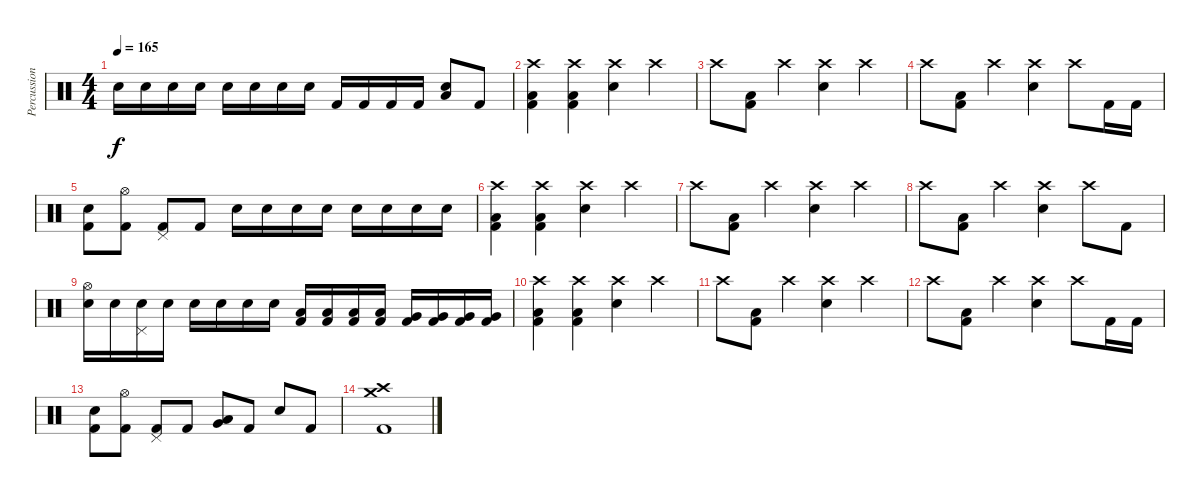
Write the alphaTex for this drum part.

\track ("Percussion" "Percussion") {instrument percussion}
\staff {score}
\articulation defaults
\ts (4 4)
\tempo 165
\clef neutral
\ks c "Electric Snare (hit)".16{dy f} "Electric Snare (hit)".16 "Electric Snare (hit)".16 "Electric Snare (hit)".16 "Electric Snare (hit)".16 "Electric Snare (hit)".16 "Electric Snare (hit)".16 "Electric Snare (hit)".16 "Kick (hit) 2".16 "Kick (hit) 2".16 "Kick (hit) 2".16 "Kick (hit) 2".16
("Electric Snare (hit)" "Low Floor Tom (hit)").8 "Kick (hit) 2".8 |
("Crash high (hit)" "Low Floor Tom (hit)" "Kick (hit) 2").4 ("Crash high (hit)" "Low Floor Tom (hit)" "Kick (hit) 2").4 ("Crash high (hit)" "Electric Snare (hit)").4 "Crash high (hit)".4 |
"Crash high (hit)".8 ("Low Floor Tom (hit)" "Kick (hit) 2").8 "Crash high (hit)".4 ("Crash high (hit)" "Electric Snare (hit)").4 "Crash high (hit)".4 |
"Crash high (hit)".8 ("Low Floor Tom (hit)" "Kick (hit) 2").8 "Crash high (hit)".4 ("Crash high (hit)" "Electric Snare (hit)").4 "Crash high (hit)".8 "Kick (hit) 2".16 "Kick (hit) 2".16 |
("Electric Snare (hit)" "Kick (hit) 2").8 ("Hi-Hat (open)" "Kick (hit) 2").8 ("Pedal Hi-Hat (hit)" "Kick (hit) 2").8 "Kick (hit) 2".8 "Electric Snare (hit)".16 "Electric Snare (hit)".16 "Electric Snare (hit)".16 "Electric Snare (hit)".16 "Electric Snare (hit)".16 "Electric Snare (hit)".16 "Electric Snare (hit)".16 "Electric Snare (hit)".16 |
("Crash high (hit)" "Low Floor Tom (hit)" "Kick (hit) 2").4 ("Crash high (hit)" "Low Floor Tom (hit)" "Kick (hit) 2").4 ("Crash high (hit)" "Electric Snare (hit)").4 "Crash high (hit)".4 |
"Crash high (hit)".8 ("Low Floor Tom (hit)" "Kick (hit) 2").8 "Crash high (hit)".4 ("Crash high (hit)" "Electric Snare (hit)").4 "Crash high (hit)".4 |
"Crash high (hit)".8 ("Low Floor Tom (hit)" "Kick (hit) 2").8 "Crash high (hit)".4 ("Crash high (hit)" "Electric Snare (hit)").4 "Crash high (hit)".8 "Kick (hit) 2".8 |
("Hi-Hat (open)" "Electric Snare (hit)").16 "Electric Snare (hit)".16 ("Pedal Hi-Hat (hit)" "Electric Snare (hit)").16 "Electric Snare (hit)".16 "Electric Snare (hit)".16 "Electric Snare (hit)".16 "Electric Snare (hit)".16 "Electric Snare (hit)".16 ("Low Tom (hit)" "Kick (hit) 2").16 ("Low Tom (hit)" "Kick (hit) 2").16 ("Low Tom (hit)" "Kick (hit) 2").16 ("Low Tom (hit)" "Kick (hit) 2").16 ("Very Low Tom (hit)" "Kick (hit) 2").16 ("Very Low Tom (hit)" "Kick (hit) 2").16 ("Very Low Tom (hit)" "Kick (hit) 2").16 ("Very Low Tom (hit)" "Kick (hit) 2").16 |
("Crash high (hit)" "Low Floor Tom (hit)" "Kick (hit) 2").4 ("Crash high (hit)" "Low Floor Tom (hit)" "Kick (hit) 2").4 ("Crash high (hit)" "Electric Snare (hit)").4 "Crash high (hit)".4 |
"Crash high (hit)".8 ("Low Floor Tom (hit)" "Kick (hit) 2").8 "Crash high (hit)".4 ("Crash high (hit)" "Electric Snare (hit)").4 "Crash high (hit)".4 |
"Crash high (hit)".8 ("Low Floor Tom (hit)" "Kick (hit) 2").8 "Crash high (hit)".4 ("Crash high (hit)" "Electric Snare (hit)").4 "Crash high (hit)".8 "Kick (hit) 2".16 "Kick (hit) 2".16 |
("Electric Snare (hit)" "Kick (hit) 2").8 ("Hi-Hat (open)" "Kick (hit) 2").8 ("Pedal Hi-Hat (hit)" "Kick (hit) 2").8 "Kick (hit) 2".8 ("Very Low Tom (hit)" "Low Floor Tom (hit)").8 "Kick (hit) 2".8 "Electric Snare (hit)".8 "Kick (hit) 2".8 |
("Crash medium (hit)" "Crash high (hit)" "Kick (hit) 2").1
